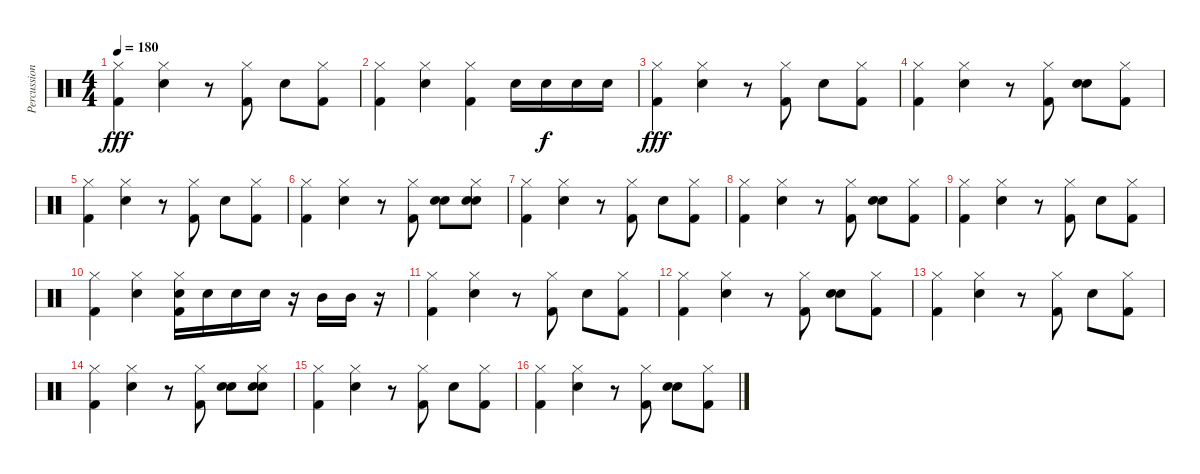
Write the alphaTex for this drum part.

\track ("Percussion" "Percussion") {instrument percussion}
\staff {score}
\articulation defaults
\ts (4 4)
\tempo 180
\clef neutral
\ks c
("Hi-Hat (closed)" "Kick (hit) 2").4{dy fff} ("Hi-Hat (closed)" "Snare (hit) 2").4 r.8 ("Hi-Hat (closed)" "Kick (hit) 2").8 "Snare (hit) 2".8 ("Hi-Hat (closed)" "Kick (hit) 2").8 |
("Hi-Hat (closed)" "Kick (hit) 2").4 ("Hi-Hat (closed)" "Snare (hit) 2").4 ("Hi-Hat (closed)" "Kick (hit) 2").4 "Snare (hit) 2".16 "Snare (hit) 2".16{dy f} "Snare (hit) 2".16 "Snare (hit) 2".16 |
("Hi-Hat (closed)" "Kick (hit) 2").4{dy fff} ("Hi-Hat (closed)" "Snare (hit) 2").4 r.8 ("Hi-Hat (closed)" "Kick (hit) 2").8 "Snare (hit) 2".8 ("Hi-Hat (closed)" "Kick (hit) 2").8 |
("Hi-Hat (closed)" "Kick (hit) 2").4 ("Hi-Hat (closed)" "Snare (hit) 2").4 r.8 ("Hi-Hat (closed)" "Kick (hit) 2").8 ("Snare (hit) 2" "Snare (hit) 2").8 ("Hi-Hat (closed)" "Kick (hit) 2").8 |
("Hi-Hat (closed)" "Kick (hit) 2").4 ("Hi-Hat (closed)" "Snare (hit) 2").4 r.8 ("Hi-Hat (closed)" "Kick (hit) 2").8 "Snare (hit) 2".8 ("Hi-Hat (closed)" "Kick (hit) 2").8 |
("Hi-Hat (closed)" "Kick (hit) 2").4 ("Hi-Hat (closed)" "Snare (hit) 2").4 r.8 ("Hi-Hat (closed)" "Kick (hit) 2").8 ("Snare (hit) 2" "Snare (hit) 2").8 ("Hi-Hat (closed)" "Snare (hit) 2" "Snare (hit) 2").8 |
("Hi-Hat (closed)" "Kick (hit) 2").4 ("Hi-Hat (closed)" "Snare (hit) 2").4 r.8 ("Hi-Hat (closed)" "Kick (hit) 2").8 "Snare (hit) 2".8 ("Hi-Hat (closed)" "Kick (hit) 2").8 |
("Hi-Hat (closed)" "Kick (hit) 2").4 ("Hi-Hat (closed)" "Snare (hit) 2").4 r.8 ("Hi-Hat (closed)" "Kick (hit) 2").8 ("Snare (hit) 2" "Snare (hit) 2").8 ("Hi-Hat (closed)" "Kick (hit) 2").8 |
("Hi-Hat (closed)" "Kick (hit) 2").4 ("Hi-Hat (closed)" "Snare (hit) 2").4 r.8 ("Hi-Hat (closed)" "Kick (hit) 2").8 "Snare (hit) 2".8 ("Hi-Hat (closed)" "Kick (hit) 2").8 |
("Hi-Hat (closed)" "Kick (hit) 2").4 ("Hi-Hat (closed)" "Snare (hit) 2").4 ("Hi-Hat (closed)" "Snare (hit) 2" "Kick (hit) 2").16 "Snare (hit) 2".16 "Snare (hit) 2".16 "Snare (hit) 2".16 r.16 "Mid Tom (hit)".16 "Mid Tom (hit)".16 r.16 |
("Hi-Hat (closed)" "Kick (hit) 2").4 ("Hi-Hat (closed)" "Snare (hit) 2").4 r.8 ("Hi-Hat (closed)" "Kick (hit) 2").8 "Snare (hit) 2".8 ("Hi-Hat (closed)" "Kick (hit) 2").8 |
("Hi-Hat (closed)" "Kick (hit) 2").4 ("Hi-Hat (closed)" "Snare (hit) 2").4 r.8 ("Hi-Hat (closed)" "Kick (hit) 2").8 ("Snare (hit) 2" "Snare (hit) 2").8 ("Hi-Hat (closed)" "Kick (hit) 2").8 |
("Hi-Hat (closed)" "Kick (hit) 2").4 ("Hi-Hat (closed)" "Snare (hit) 2").4 r.8 ("Hi-Hat (closed)" "Kick (hit) 2").8 "Snare (hit) 2".8 ("Hi-Hat (closed)" "Kick (hit) 2").8 |
("Hi-Hat (closed)" "Kick (hit) 2").4 ("Hi-Hat (closed)" "Snare (hit) 2").4 r.8 ("Hi-Hat (closed)" "Kick (hit) 2").8 ("Snare (hit) 2" "Snare (hit) 2").8 ("Hi-Hat (closed)" "Snare (hit) 2" "Snare (hit) 2").8 |
("Hi-Hat (closed)" "Kick (hit) 2").4 ("Hi-Hat (closed)" "Snare (hit) 2").4 r.8 ("Hi-Hat (closed)" "Kick (hit) 2").8 "Snare (hit) 2".8 ("Hi-Hat (closed)" "Kick (hit) 2").8 |
("Hi-Hat (closed)" "Kick (hit) 2").4 ("Hi-Hat (closed)" "Snare (hit) 2").4 r.8 ("Hi-Hat (closed)" "Kick (hit) 2").8 ("Snare (hit) 2" "Snare (hit) 2").8 ("Hi-Hat (closed)" "Kick (hit) 2").8
